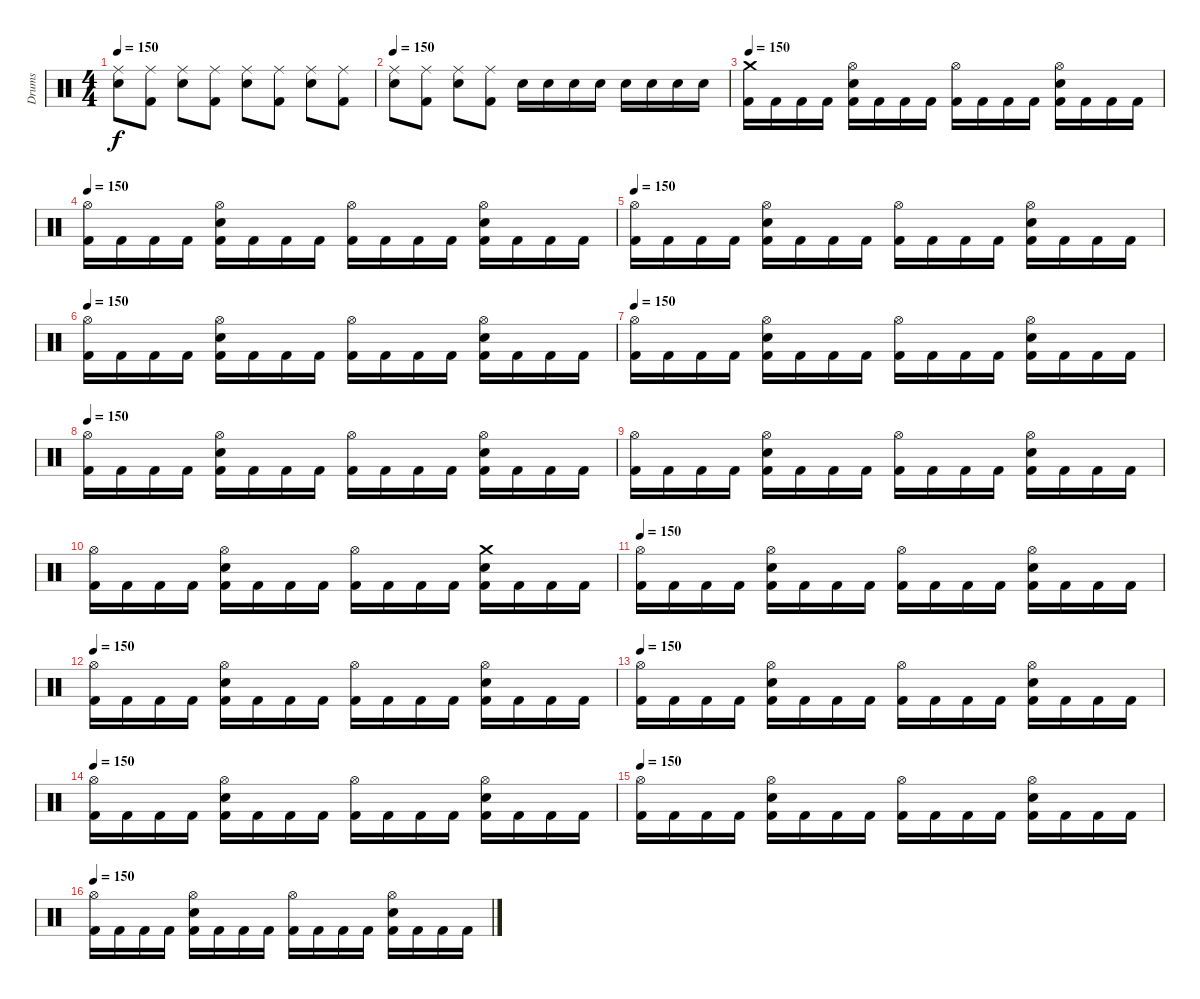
\track ("Drums" "Drums") {instrument percussion}
\staff {score}
\articulation defaults
\ts (4 4)
\tempo 150
\clef neutral
\ks c
("Electric Snare (hit)" "Ride (middle)").8{dy f} ("Kick (hit) 2" "Ride (middle)").8 ("Electric Snare (hit)" "Ride (middle)").8 ("Kick (hit) 2" "Ride (middle)").8 ("Electric Snare (hit)" "Ride (middle)").8 ("Kick (hit) 2" "Ride (middle)").8 ("Electric Snare (hit)" "Ride (middle)").8 ("Kick (hit) 2" "Ride (middle)").8 |
\tempo 150
("Electric Snare (hit)" "Ride (middle)").8 ("Kick (hit) 2" "Ride (middle)").8 ("Electric Snare (hit)" "Ride (middle)").8 ("Kick (hit) 2" "Ride (middle)").8 "Electric Snare (hit)".16 "Electric Snare (hit)".16 "Electric Snare (hit)".16 "Electric Snare (hit)".16 "Snare (hit) 2".16 "Snare (hit) 2".16 "Snare (hit) 2".16 "Snare (hit) 2".16 |
\tempo 150
("Kick (hit) 2" "Crash medium (hit)").16 "Kick (hit) 2".16 "Kick (hit) 2".16 "Kick (hit) 2".16 ("Kick (hit) 2" "Electric Snare (hit)" "Hi-Hat (open)").16 "Kick (hit) 2".16 "Kick (hit) 2".16 "Kick (hit) 2".16 ("Kick (hit) 2" "Hi-Hat (open)").16 "Kick (hit) 2".16 "Kick (hit) 2".16 "Kick (hit) 2".16 ("Kick (hit) 2" "Electric Snare (hit)" "Hi-Hat (open)").16 "Kick (hit) 2".16 "Kick (hit) 2".16 "Kick (hit) 2".16 |
\tempo 150
("Kick (hit) 2" "Hi-Hat (open)").16 "Kick (hit) 2".16 "Kick (hit) 2".16 "Kick (hit) 2".16 ("Kick (hit) 2" "Electric Snare (hit)" "Hi-Hat (open)").16 "Kick (hit) 2".16 "Kick (hit) 2".16 "Kick (hit) 2".16 ("Kick (hit) 2" "Hi-Hat (open)").16 "Kick (hit) 2".16 "Kick (hit) 2".16 "Kick (hit) 2".16 ("Kick (hit) 2" "Electric Snare (hit)" "Hi-Hat (open)").16 "Kick (hit) 2".16 "Kick (hit) 2".16 "Kick (hit) 2".16 |
\tempo 150
("Kick (hit) 2" "Hi-Hat (open)").16 "Kick (hit) 2".16 "Kick (hit) 2".16 "Kick (hit) 2".16 ("Kick (hit) 2" "Electric Snare (hit)" "Hi-Hat (open)").16 "Kick (hit) 2".16 "Kick (hit) 2".16 "Kick (hit) 2".16 ("Kick (hit) 2" "Hi-Hat (open)").16 "Kick (hit) 2".16 "Kick (hit) 2".16 "Kick (hit) 2".16 ("Kick (hit) 2" "Electric Snare (hit)" "Hi-Hat (open)").16 "Kick (hit) 2".16 "Kick (hit) 2".16 "Kick (hit) 2".16 |
\tempo 150
("Kick (hit) 2" "Hi-Hat (open)").16 "Kick (hit) 2".16 "Kick (hit) 2".16 "Kick (hit) 2".16 ("Kick (hit) 2" "Electric Snare (hit)" "Hi-Hat (open)").16 "Kick (hit) 2".16 "Kick (hit) 2".16 "Kick (hit) 2".16 ("Kick (hit) 2" "Hi-Hat (open)").16 "Kick (hit) 2".16 "Kick (hit) 2".16 "Kick (hit) 2".16 ("Kick (hit) 2" "Electric Snare (hit)" "Hi-Hat (open)").16 "Kick (hit) 2".16 "Kick (hit) 2".16 "Kick (hit) 2".16 |
\tempo 150
("Kick (hit) 2" "Hi-Hat (open)").16 "Kick (hit) 2".16 "Kick (hit) 2".16 "Kick (hit) 2".16 ("Kick (hit) 2" "Electric Snare (hit)" "Hi-Hat (open)").16 "Kick (hit) 2".16 "Kick (hit) 2".16 "Kick (hit) 2".16 ("Kick (hit) 2" "Hi-Hat (open)").16 "Kick (hit) 2".16 "Kick (hit) 2".16 "Kick (hit) 2".16 ("Kick (hit) 2" "Electric Snare (hit)" "Hi-Hat (open)").16 "Kick (hit) 2".16 "Kick (hit) 2".16 "Kick (hit) 2".16 |
\tempo 150
("Kick (hit) 2" "Hi-Hat (open)").16 "Kick (hit) 2".16 "Kick (hit) 2".16 "Kick (hit) 2".16 ("Kick (hit) 2" "Electric Snare (hit)" "Hi-Hat (open)").16 "Kick (hit) 2".16 "Kick (hit) 2".16 "Kick (hit) 2".16 ("Kick (hit) 2" "Hi-Hat (open)").16 "Kick (hit) 2".16 "Kick (hit) 2".16 "Kick (hit) 2".16 ("Kick (hit) 2" "Electric Snare (hit)" "Hi-Hat (open)").16 "Kick (hit) 2".16 "Kick (hit) 2".16 "Kick (hit) 2".16 |
("Kick (hit) 2" "Hi-Hat (open)").16 "Kick (hit) 2".16 "Kick (hit) 2".16 "Kick (hit) 2".16 ("Kick (hit) 2" "Electric Snare (hit)" "Hi-Hat (open)").16 "Kick (hit) 2".16 "Kick (hit) 2".16 "Kick (hit) 2".16 ("Kick (hit) 2" "Hi-Hat (open)").16 "Kick (hit) 2".16 "Kick (hit) 2".16 "Kick (hit) 2".16 ("Kick (hit) 2" "Electric Snare (hit)" "Hi-Hat (open)").16 "Kick (hit) 2".16 "Kick (hit) 2".16 "Kick (hit) 2".16 |
("Kick (hit) 2" "Hi-Hat (open)").16 "Kick (hit) 2".16 "Kick (hit) 2".16 "Kick (hit) 2".16 ("Kick (hit) 2" "Electric Snare (hit)" "Hi-Hat (open)").16 "Kick (hit) 2".16 "Kick (hit) 2".16 "Kick (hit) 2".16 ("Kick (hit) 2" "Hi-Hat (open)").16 "Kick (hit) 2".16 "Kick (hit) 2".16 "Kick (hit) 2".16 ("Kick (hit) 2" "Electric Snare (hit)" "Crash medium (hit)").16 "Kick (hit) 2".16 "Kick (hit) 2".16 "Kick (hit) 2".16 |
\tempo 150
("Kick (hit) 2" "Hi-Hat (open)").16 "Kick (hit) 2".16 "Kick (hit) 2".16 "Kick (hit) 2".16 ("Kick (hit) 2" "Electric Snare (hit)" "Hi-Hat (open)").16 "Kick (hit) 2".16 "Kick (hit) 2".16 "Kick (hit) 2".16 ("Kick (hit) 2" "Hi-Hat (open)").16 "Kick (hit) 2".16 "Kick (hit) 2".16 "Kick (hit) 2".16 ("Kick (hit) 2" "Electric Snare (hit)" "Hi-Hat (open)").16 "Kick (hit) 2".16 "Kick (hit) 2".16 "Kick (hit) 2".16 |
\tempo 150
("Kick (hit) 2" "Hi-Hat (open)").16 "Kick (hit) 2".16 "Kick (hit) 2".16 "Kick (hit) 2".16 ("Kick (hit) 2" "Electric Snare (hit)" "Hi-Hat (open)").16 "Kick (hit) 2".16 "Kick (hit) 2".16 "Kick (hit) 2".16 ("Kick (hit) 2" "Hi-Hat (open)").16 "Kick (hit) 2".16 "Kick (hit) 2".16 "Kick (hit) 2".16 ("Kick (hit) 2" "Electric Snare (hit)" "Hi-Hat (open)").16 "Kick (hit) 2".16 "Kick (hit) 2".16 "Kick (hit) 2".16 |
\tempo 150
("Kick (hit) 2" "Hi-Hat (open)").16 "Kick (hit) 2".16 "Kick (hit) 2".16 "Kick (hit) 2".16 ("Kick (hit) 2" "Electric Snare (hit)" "Hi-Hat (open)").16 "Kick (hit) 2".16 "Kick (hit) 2".16 "Kick (hit) 2".16 ("Kick (hit) 2" "Hi-Hat (open)").16 "Kick (hit) 2".16 "Kick (hit) 2".16 "Kick (hit) 2".16 ("Kick (hit) 2" "Electric Snare (hit)" "Hi-Hat (open)").16 "Kick (hit) 2".16 "Kick (hit) 2".16 "Kick (hit) 2".16 |
\tempo 150
("Kick (hit) 2" "Hi-Hat (open)").16 "Kick (hit) 2".16 "Kick (hit) 2".16 "Kick (hit) 2".16 ("Kick (hit) 2" "Electric Snare (hit)" "Hi-Hat (open)").16 "Kick (hit) 2".16 "Kick (hit) 2".16 "Kick (hit) 2".16 ("Kick (hit) 2" "Hi-Hat (open)").16 "Kick (hit) 2".16 "Kick (hit) 2".16 "Kick (hit) 2".16 ("Kick (hit) 2" "Electric Snare (hit)" "Hi-Hat (open)").16 "Kick (hit) 2".16 "Kick (hit) 2".16 "Kick (hit) 2".16 |
\tempo 150
("Kick (hit) 2" "Hi-Hat (open)").16 "Kick (hit) 2".16 "Kick (hit) 2".16 "Kick (hit) 2".16 ("Kick (hit) 2" "Electric Snare (hit)" "Hi-Hat (open)").16 "Kick (hit) 2".16 "Kick (hit) 2".16 "Kick (hit) 2".16 ("Kick (hit) 2" "Hi-Hat (open)").16 "Kick (hit) 2".16 "Kick (hit) 2".16 "Kick (hit) 2".16 ("Kick (hit) 2" "Electric Snare (hit)" "Hi-Hat (open)").16 "Kick (hit) 2".16 "Kick (hit) 2".16 "Kick (hit) 2".16 |
\tempo 150
("Kick (hit) 2" "Hi-Hat (open)").16 "Kick (hit) 2".16 "Kick (hit) 2".16 "Kick (hit) 2".16 ("Kick (hit) 2" "Electric Snare (hit)" "Hi-Hat (open)").16 "Kick (hit) 2".16 "Kick (hit) 2".16 "Kick (hit) 2".16 ("Kick (hit) 2" "Hi-Hat (open)").16 "Kick (hit) 2".16 "Kick (hit) 2".16 "Kick (hit) 2".16 ("Kick (hit) 2" "Electric Snare (hit)" "Hi-Hat (open)").16 "Kick (hit) 2".16 "Kick (hit) 2".16 "Kick (hit) 2".16
